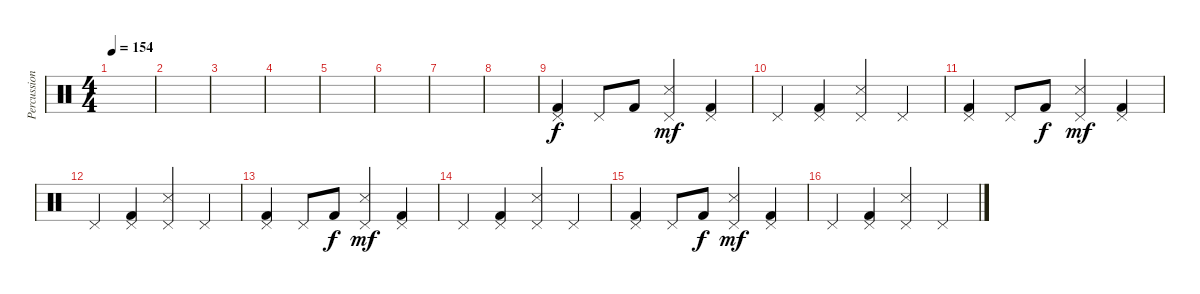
\track ("Percussion" "Percussion") {instrument percussion}
\staff {score}
\articulation defaults
\ts (4 4)
\tempo 154
\clef neutral
\ks c
|
|
|
|
|
|
|
|
("Kick (hit) 2" "Pedal Hi-Hat (hit)").4 "Pedal Hi-Hat (hit)".8 "Kick (hit) 2".8{dy f} ("Snare (side stick) 3" "Pedal Hi-Hat (hit)").4{dy mf} ("Kick (hit) 2" "Pedal Hi-Hat (hit)").4 |
"Pedal Hi-Hat (hit)".4 ("Kick (hit) 2" "Pedal Hi-Hat (hit)").4 ("Snare (side stick) 3" "Pedal Hi-Hat (hit)").4 "Pedal Hi-Hat (hit)".4 |
("Kick (hit) 2" "Pedal Hi-Hat (hit)").4 "Pedal Hi-Hat (hit)".8 "Kick (hit) 2".8{dy f} ("Snare (side stick) 3" "Pedal Hi-Hat (hit)").4{dy mf} ("Kick (hit) 2" "Pedal Hi-Hat (hit)").4 |
"Pedal Hi-Hat (hit)".4 ("Kick (hit) 2" "Pedal Hi-Hat (hit)").4 ("Snare (side stick) 3" "Pedal Hi-Hat (hit)").4 "Pedal Hi-Hat (hit)".4 |
("Kick (hit) 2" "Pedal Hi-Hat (hit)").4 "Pedal Hi-Hat (hit)".8 "Kick (hit) 2".8{dy f} ("Snare (side stick) 3" "Pedal Hi-Hat (hit)").4{dy mf} ("Kick (hit) 2" "Pedal Hi-Hat (hit)").4 |
"Pedal Hi-Hat (hit)".4 ("Kick (hit) 2" "Pedal Hi-Hat (hit)").4 ("Snare (side stick) 3" "Pedal Hi-Hat (hit)").4 "Pedal Hi-Hat (hit)".4 |
("Kick (hit) 2" "Pedal Hi-Hat (hit)").4 "Pedal Hi-Hat (hit)".8 "Kick (hit) 2".8{dy f} ("Snare (side stick) 3" "Pedal Hi-Hat (hit)").4{dy mf} ("Kick (hit) 2" "Pedal Hi-Hat (hit)").4 |
"Pedal Hi-Hat (hit)".4 ("Kick (hit) 2" "Pedal Hi-Hat (hit)").4 ("Snare (side stick) 3" "Pedal Hi-Hat (hit)").4 "Pedal Hi-Hat (hit)".4
